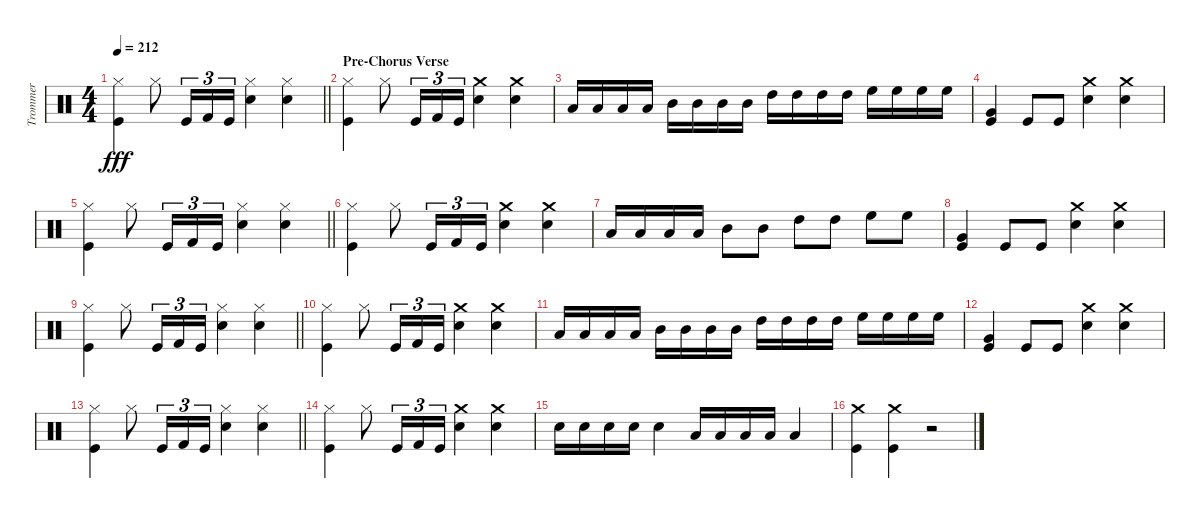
\track ("Trommer" "Trommer") {instrument percussion}
\staff {score}
\articulation defaults
\ts (4 4)
\tempo 212
\clef neutral
\barLineRight lightlight
\ks c
("Kick (hit)" "Hi-Hat (closed)").4{dy fff} "Hi-Hat (closed)".8 "Kick (hit)".16{tu (3 2)} "Kick (hit) 2".16{tu (3 2)} "Kick (hit)".16{tu (3 2)} ("Snare (hit) 2" "Hi-Hat (closed)").4 ("Snare (hit) 2" "Hi-Hat (closed)").4 |
\section ("" "Pre-Chorus Verse")
("Kick (hit)" "Hi-Hat (closed)").4 "Hi-Hat (closed)".8 "Kick (hit)".16{tu (3 2)} "Kick (hit) 2".16{tu (3 2)} "Kick (hit)".16{tu (3 2)} ("Crash medium (hit)" "Snare (hit) 2").4 ("Crash medium (hit)" "Snare (hit) 2").4 |
"Low Tom (hit)".16 "Low Tom (hit)".16 "Low Tom (hit)".16 "Low Tom (hit)".16 "Mid Tom (hit)".16 "Mid Tom (hit)".16 "Mid Tom (hit)".16 "Mid Tom (hit)".16 "High Tom (hit)".16 "High Tom (hit)".16 "High Tom (hit)".16 "High Tom (hit)".16 "High Floor Tom (hit)".16 "High Floor Tom (hit)".16 "High Floor Tom (hit)".16 "High Floor Tom (hit)".16 |
("Kick (hit)" "Very Low Tom (hit)").4 "Kick (hit)".8 "Kick (hit)".8 ("Crash medium (hit)" "Snare (hit) 2").4 ("Snare (hit) 2" "Crash medium (hit)").4 |
\barLineRight lightlight
("Kick (hit)" "Hi-Hat (closed)").4 "Hi-Hat (closed)".8 "Kick (hit)".16{tu (3 2)} "Kick (hit) 2".16{tu (3 2)} "Kick (hit)".16{tu (3 2)} ("Snare (hit) 2" "Hi-Hat (closed)").4 ("Snare (hit) 2" "Hi-Hat (closed)").4 |
("Kick (hit)" "Hi-Hat (closed)").4 "Hi-Hat (closed)".8 "Kick (hit)".16{tu (3 2)} "Kick (hit) 2".16{tu (3 2)} "Kick (hit)".16{tu (3 2)} ("Crash medium (hit)" "Snare (hit) 2").4 ("Crash medium (hit)" "Snare (hit) 2").4 |
"Low Tom (hit)".16 "Low Tom (hit)".16 "Low Tom (hit)".16 "Low Tom (hit)".16 "Mid Tom (hit)".8 "Mid Tom (hit)".8 "High Tom (hit)".8 "High Tom (hit)".8 "High Floor Tom (hit)".8 "High Floor Tom (hit)".8 |
("Kick (hit)" "Very Low Tom (hit)").4 "Kick (hit)".8 "Kick (hit)".8 ("Crash medium (hit)" "Snare (hit) 2").4 ("Snare (hit) 2" "Crash medium (hit)").4 |
\barLineRight lightlight
("Hi-Hat (closed)" "Kick (hit)").4 "Hi-Hat (closed)".8 "Kick (hit)".16{tu (3 2)} "Kick (hit) 2".16{tu (3 2)} "Kick (hit)".16{tu (3 2)} ("Snare (hit) 2" "Hi-Hat (closed)").4 ("Snare (hit) 2" "Hi-Hat (closed)").4 |
("Hi-Hat (closed)" "Kick (hit)").4 "Hi-Hat (closed)".8 "Kick (hit)".16{tu (3 2)} "Kick (hit) 2".16{tu (3 2)} "Kick (hit)".16{tu (3 2)} ("Crash medium (hit)" "Snare (hit) 2").4 ("Crash medium (hit)" "Snare (hit) 2").4 |
"Low Tom (hit)".16 "Low Tom (hit)".16 "Low Tom (hit)".16 "Low Tom (hit)".16 "Mid Tom (hit)".16 "Mid Tom (hit)".16 "Mid Tom (hit)".16 "Mid Tom (hit)".16 "High Tom (hit)".16 "High Tom (hit)".16 "High Tom (hit)".16 "High Tom (hit)".16 "High Floor Tom (hit)".16 "High Floor Tom (hit)".16 "High Floor Tom (hit)".16 "High Floor Tom (hit)".16 |
("Kick (hit)" "Very Low Tom (hit)").4 "Kick (hit)".8 "Kick (hit)".8 ("Crash medium (hit)" "Snare (hit) 2").4 ("Crash medium (hit)" "Snare (hit) 2").4 |
\barLineRight lightlight
("Kick (hit)" "Hi-Hat (closed)").4 "Hi-Hat (closed)".8 "Kick (hit)".16{tu (3 2)} "Kick (hit) 2".16{tu (3 2)} "Kick (hit)".16{tu (3 2)} ("Hi-Hat (closed)" "Snare (hit) 2").4 ("Snare (hit) 2" "Hi-Hat (closed)").4 |
("Kick (hit)" "Hi-Hat (closed)").4 "Hi-Hat (closed)".8 "Kick (hit)".16{tu (3 2)} "Kick (hit) 2".16{tu (3 2)} "Kick (hit)".16{tu (3 2)} ("Crash medium (hit)" "Snare (hit) 2").4 ("Crash medium (hit)" "Snare (hit) 2").4 |
"Snare (hit) 2".16 "Snare (hit) 2".16 "Snare (hit) 2".16 "Snare (hit) 2".16 "Snare (hit) 2".4 "Low Tom (hit)".16 "Low Tom (hit)".16 "Low Tom (hit)".16 "Low Tom (hit)".16 "Low Tom (hit)".4 |
("Kick (hit)" "Crash medium (hit)").4 ("Kick (hit)" "Crash medium (hit)").4 r.2
